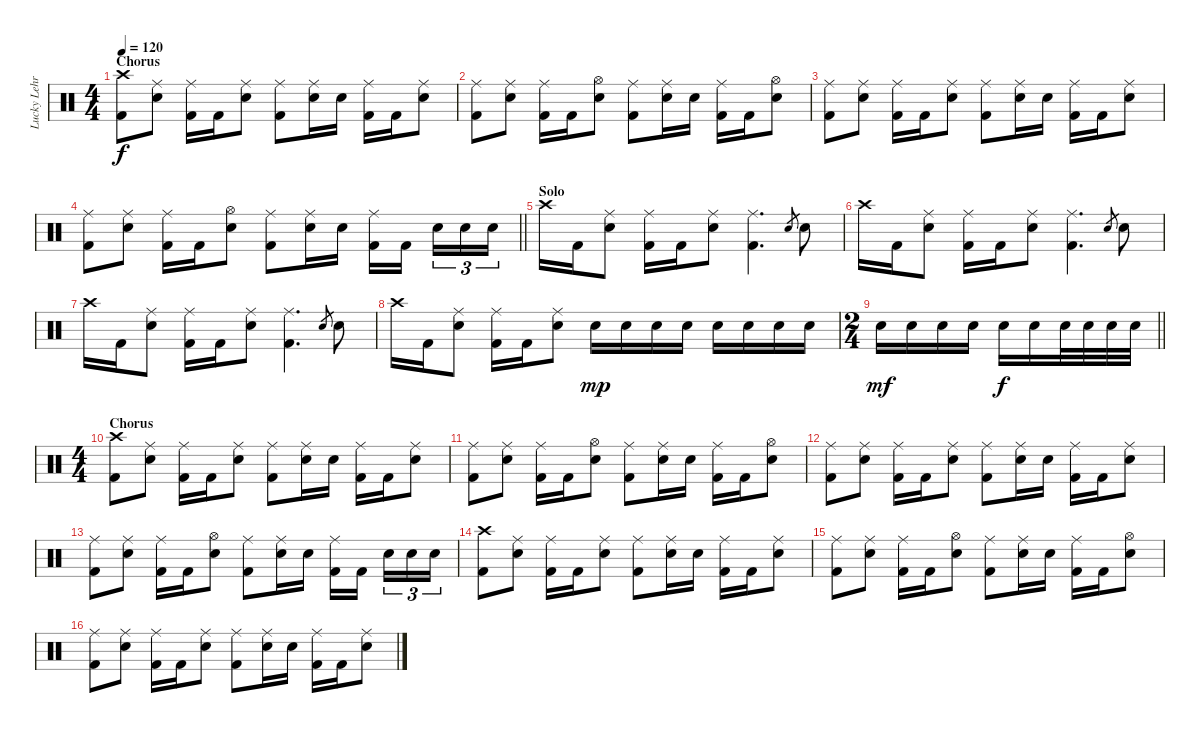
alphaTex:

\track ("Lucky Lehrer" "Lucky Lehr") {instrument percussion}
\staff {score}
\articulation defaults
\ts (4 4)
\section ("" "Chorus")
\tempo 120
\clef neutral
\ks c
("Crash high (hit)" "Kick (hit) 2").8{dy f} ("Ride (middle)" "Electric Snare (hit)").8 ("Ride (middle)" "Kick (hit) 2").16 "Kick (hit) 2".16 ("Ride (middle)" "Electric Snare (hit)").8 ("Ride (middle)" "Kick (hit) 2").8 ("Ride (middle)" "Electric Snare (hit)").16 "Electric Snare (hit)".16 ("Ride (middle)" "Kick (hit) 2").16 "Kick (hit) 2".16 ("Ride (middle)" "Electric Snare (hit)").8 |
("Ride (middle)" "Kick (hit) 2").8 ("Ride (middle)" "Electric Snare (hit)").8 ("Ride (middle)" "Kick (hit) 2").16 "Kick (hit) 2".16 ("Hi-Hat (open)" "Electric Snare (hit)").8 ("Ride (middle)" "Kick (hit) 2").8 ("Ride (middle)" "Electric Snare (hit)").16 "Electric Snare (hit)".16 ("Ride (middle)" "Kick (hit) 2").16 "Kick (hit) 2".16 ("Hi-Hat (open)" "Electric Snare (hit)").8 |
("Ride (middle)" "Kick (hit) 2").8 ("Ride (middle)" "Electric Snare (hit)").8 ("Ride (middle)" "Kick (hit) 2").16 "Kick (hit) 2".16 ("Ride (middle)" "Electric Snare (hit)").8 ("Ride (middle)" "Kick (hit) 2").8 ("Ride (middle)" "Electric Snare (hit)").16 "Electric Snare (hit)".16 ("Ride (middle)" "Kick (hit) 2").16 "Kick (hit) 2".16 ("Ride (middle)" "Electric Snare (hit)").8 |
\barLineRight lightlight
("Ride (middle)" "Kick (hit) 2").8 ("Ride (middle)" "Electric Snare (hit)").8 ("Ride (middle)" "Kick (hit) 2").16 "Kick (hit) 2".16 ("Hi-Hat (open)" "Electric Snare (hit)").8 ("Ride (middle)" "Kick (hit) 2").8 ("Ride (middle)" "Electric Snare (hit)").16 "Electric Snare (hit)".16 ("Ride (middle)" "Kick (hit) 2").16 "Kick (hit) 2".16{beam splitsecondary} "Electric Snare (hit)".16{tu (3 2)} "Electric Snare (hit)".16{tu (3 2)} "Electric Snare (hit)".16{tu (3 2)} |
\section ("" "Solo")
"Crash high (hit)".16 "Kick (hit) 2".16 ("Ride (middle)" "Electric Snare (hit)").8 ("Ride (middle)" "Kick (hit) 2").16 "Kick (hit) 2".16 ("Ride (middle)" "Electric Snare (hit)").8 ("Ride (middle)" "Kick (hit) 2").4{d} "Electric Snare (hit)".8{gr} "Electric Snare (hit)".8 |
"Crash high (hit)".16 "Kick (hit) 2".16 ("Ride (middle)" "Electric Snare (hit)").8 ("Ride (middle)" "Kick (hit) 2").16 "Kick (hit) 2".16 ("Ride (middle)" "Electric Snare (hit)").8 ("Ride (middle)" "Kick (hit) 2").4{d} "Electric Snare (hit)".8{gr} "Electric Snare (hit)".8 |
"Crash high (hit)".16 "Kick (hit) 2".16 ("Ride (middle)" "Electric Snare (hit)").8 ("Ride (middle)" "Kick (hit) 2").16 "Kick (hit) 2".16 ("Ride (middle)" "Electric Snare (hit)").8 ("Ride (middle)" "Kick (hit) 2").4{d} "Electric Snare (hit)".8{gr} "Electric Snare (hit)".8 |
"Crash high (hit)".16 "Kick (hit) 2".16 ("Ride (middle)" "Electric Snare (hit)").8 ("Ride (middle)" "Kick (hit) 2").16 "Kick (hit) 2".16 ("Ride (middle)" "Electric Snare (hit)").8 "Electric Snare (hit)".16{dy mp} "Electric Snare (hit)".16 "Electric Snare (hit)".16 "Electric Snare (hit)".16 "Electric Snare (hit)".16 "Electric Snare (hit)".16 "Electric Snare (hit)".16 "Electric Snare (hit)".16 |
\ts (2 4)
\barLineRight lightlight "Electric Snare (hit)".16{dy mf} "Electric Snare (hit)".16 "Electric Snare (hit)".16 "Electric Snare (hit)".16 "Electric Snare (hit)".16{dy f} "Electric Snare (hit)".16 "Electric Snare (hit)".32 "Electric Snare (hit)".32 "Electric Snare (hit)".32 "Electric Snare (hit)".32
|
\ts (4 4)
\section ("" "Chorus")
("Crash high (hit)" "Kick (hit) 2").8 ("Ride (middle)" "Electric Snare (hit)").8 ("Ride (middle)" "Kick (hit) 2").16 "Kick (hit) 2".16 ("Ride (middle)" "Electric Snare (hit)").8 ("Ride (middle)" "Kick (hit) 2").8 ("Ride (middle)" "Electric Snare (hit)").16 "Electric Snare (hit)".16 ("Ride (middle)" "Kick (hit) 2").16 "Kick (hit) 2".16 ("Ride (middle)" "Electric Snare (hit)").8 |
("Ride (middle)" "Kick (hit) 2").8 ("Ride (middle)" "Electric Snare (hit)").8 ("Ride (middle)" "Kick (hit) 2").16 "Kick (hit) 2".16 ("Hi-Hat (open)" "Electric Snare (hit)").8 ("Ride (middle)" "Kick (hit) 2").8 ("Ride (middle)" "Electric Snare (hit)").16 "Electric Snare (hit)".16 ("Ride (middle)" "Kick (hit) 2").16 "Kick (hit) 2".16 ("Hi-Hat (open)" "Electric Snare (hit)").8 |
("Ride (middle)" "Kick (hit) 2").8 ("Ride (middle)" "Electric Snare (hit)").8 ("Ride (middle)" "Kick (hit) 2").16 "Kick (hit) 2".16 ("Ride (middle)" "Electric Snare (hit)").8 ("Ride (middle)" "Kick (hit) 2").8 ("Ride (middle)" "Electric Snare (hit)").16 "Electric Snare (hit)".16 ("Ride (middle)" "Kick (hit) 2").16 "Kick (hit) 2".16 ("Ride (middle)" "Electric Snare (hit)").8 |
("Ride (middle)" "Kick (hit) 2").8 ("Ride (middle)" "Electric Snare (hit)").8 ("Ride (middle)" "Kick (hit) 2").16 "Kick (hit) 2".16 ("Hi-Hat (open)" "Electric Snare (hit)").8 ("Ride (middle)" "Kick (hit) 2").8 ("Ride (middle)" "Electric Snare (hit)").16 "Electric Snare (hit)".16 ("Ride (middle)" "Kick (hit) 2").16 "Kick (hit) 2".16{beam splitsecondary} "Electric Snare (hit)".16{tu (3 2)} "Electric Snare (hit)".16{tu (3 2)} "Electric Snare (hit)".16{tu (3 2)} |
("Crash high (hit)" "Kick (hit) 2").8 ("Ride (middle)" "Electric Snare (hit)").8 ("Ride (middle)" "Kick (hit) 2").16 "Kick (hit) 2".16 ("Ride (middle)" "Electric Snare (hit)").8 ("Ride (middle)" "Kick (hit) 2").8 ("Ride (middle)" "Electric Snare (hit)").16 "Electric Snare (hit)".16 ("Ride (middle)" "Kick (hit) 2").16 "Kick (hit) 2".16 ("Ride (middle)" "Electric Snare (hit)").8 |
("Ride (middle)" "Kick (hit) 2").8 ("Ride (middle)" "Electric Snare (hit)").8 ("Ride (middle)" "Kick (hit) 2").16 "Kick (hit) 2".16 ("Hi-Hat (open)" "Electric Snare (hit)").8 ("Ride (middle)" "Kick (hit) 2").8 ("Ride (middle)" "Electric Snare (hit)").16 "Electric Snare (hit)".16 ("Ride (middle)" "Kick (hit) 2").16 "Kick (hit) 2".16 ("Hi-Hat (open)" "Electric Snare (hit)").8 |
("Ride (middle)" "Kick (hit) 2").8 ("Ride (middle)" "Electric Snare (hit)").8 ("Ride (middle)" "Kick (hit) 2").16 "Kick (hit) 2".16 ("Ride (middle)" "Electric Snare (hit)").8 ("Ride (middle)" "Kick (hit) 2").8 ("Ride (middle)" "Electric Snare (hit)").16 "Electric Snare (hit)".16 ("Ride (middle)" "Kick (hit) 2").16 "Kick (hit) 2".16 ("Ride (middle)" "Electric Snare (hit)").8
